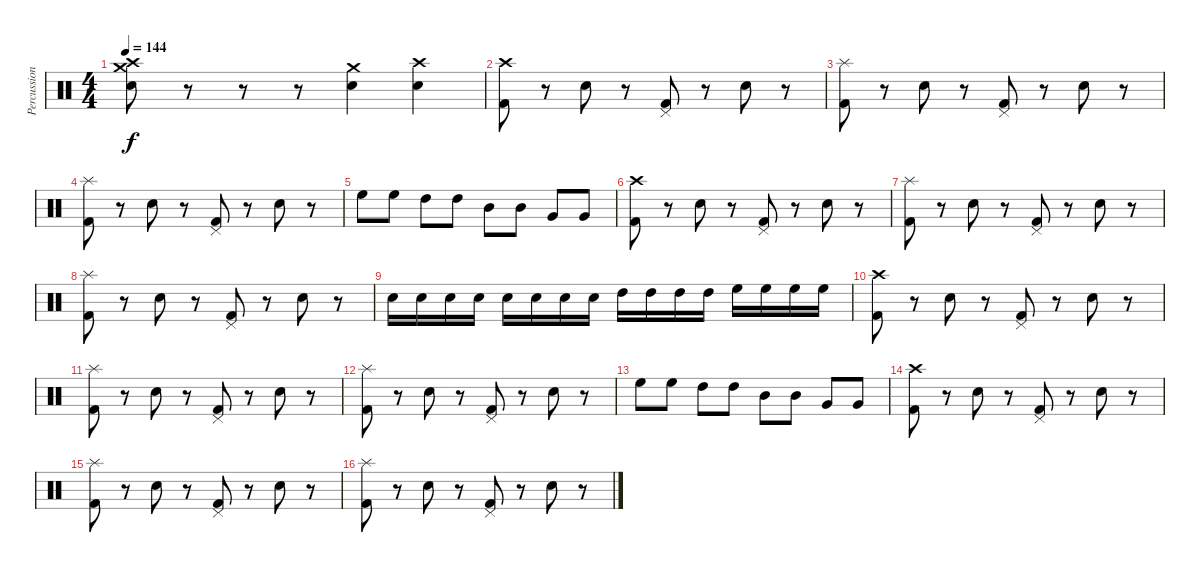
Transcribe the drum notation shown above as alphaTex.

\track ("Percussion" "Percussion") {instrument percussion}
\staff {score}
\articulation defaults
\ts (4 4)
\tempo 144
\clef neutral
\ks c
("Snare (hit) 2" "Crash high (hit)" "Crash medium (hit)").8{dy f} r.8 r.8 r.8 ("Snare (hit) 2" "Crash medium (hit)").4 ("Snare (hit) 2" "Crash high (hit)").4 |
("Crash high (hit)" "Kick (hit) 2").8 r.8 "Snare (hit) 2".8 r.8 ("Pedal Hi-Hat (hit)" "Kick (hit) 2").8 r.8 "Snare (hit) 2".8 r.8 |
("Kick (hit) 2" "Splash (hit)").8 r.8 "Snare (hit) 2".8 r.8 ("Pedal Hi-Hat (hit)" "Kick (hit) 2").8 r.8 "Snare (hit) 2".8 r.8 |
("Kick (hit) 2" "Splash (hit)").8 r.8 "Snare (hit) 2".8 r.8 ("Pedal Hi-Hat (hit)" "Kick (hit) 2").8 r.8 "Snare (hit) 2".8 r.8 |
"High Floor Tom (hit)".8 "High Floor Tom (hit)".8 "High Tom (hit)".8 "High Tom (hit)".8 "Mid Tom (hit)".8 "Mid Tom (hit)".8 "Very Low Tom (hit)".8 "Very Low Tom (hit)".8 |
("Crash high (hit)" "Kick (hit) 2").8 r.8 "Snare (hit) 2".8 r.8 ("Pedal Hi-Hat (hit)" "Kick (hit) 2").8 r.8 "Snare (hit) 2".8 r.8 |
("Kick (hit) 2" "Splash (hit)").8 r.8 "Snare (hit) 2".8 r.8 ("Pedal Hi-Hat (hit)" "Kick (hit) 2").8 r.8 "Snare (hit) 2".8 r.8 |
("Kick (hit) 2" "Splash (hit)").8 r.8 "Snare (hit) 2".8 r.8 ("Pedal Hi-Hat (hit)" "Kick (hit) 2").8 r.8 "Snare (hit) 2".8 r.8 |
"Electric Snare (hit)".16 "Electric Snare (hit)".16 "Electric Snare (hit)".16 "Electric Snare (hit)".16 "Snare (hit) 2".16 "Snare (hit) 2".16 "Snare (hit) 2".16 "Snare (hit) 2".16 "High Tom (hit)".16 "High Tom (hit)".16 "High Tom (hit)".16 "High Tom (hit)".16 "High Floor Tom (hit)".16 "High Floor Tom (hit)".16 "High Floor Tom (hit)".16 "High Floor Tom (hit)".16 |
("Crash high (hit)" "Kick (hit) 2").8 r.8 "Snare (hit) 2".8 r.8 ("Pedal Hi-Hat (hit)" "Kick (hit) 2").8 r.8 "Snare (hit) 2".8 r.8 |
("Kick (hit) 2" "Splash (hit)").8 r.8 "Snare (hit) 2".8 r.8 ("Pedal Hi-Hat (hit)" "Kick (hit) 2").8 r.8 "Snare (hit) 2".8 r.8 |
("Kick (hit) 2" "Splash (hit)").8 r.8 "Snare (hit) 2".8 r.8 ("Pedal Hi-Hat (hit)" "Kick (hit) 2").8 r.8 "Snare (hit) 2".8 r.8 |
"High Floor Tom (hit)".8 "High Floor Tom (hit)".8 "High Tom (hit)".8 "High Tom (hit)".8 "Mid Tom (hit)".8 "Mid Tom (hit)".8 "Very Low Tom (hit)".8 "Very Low Tom (hit)".8 |
("Crash high (hit)" "Kick (hit) 2").8 r.8 "Snare (hit) 2".8 r.8 ("Pedal Hi-Hat (hit)" "Kick (hit) 2").8 r.8 "Snare (hit) 2".8 r.8 |
("Kick (hit) 2" "Splash (hit)").8 r.8 "Snare (hit) 2".8 r.8 ("Pedal Hi-Hat (hit)" "Kick (hit) 2").8 r.8 "Snare (hit) 2".8 r.8 |
("Kick (hit) 2" "Splash (hit)").8 r.8 "Snare (hit) 2".8 r.8 ("Pedal Hi-Hat (hit)" "Kick (hit) 2").8 r.8 "Snare (hit) 2".8 r.8
